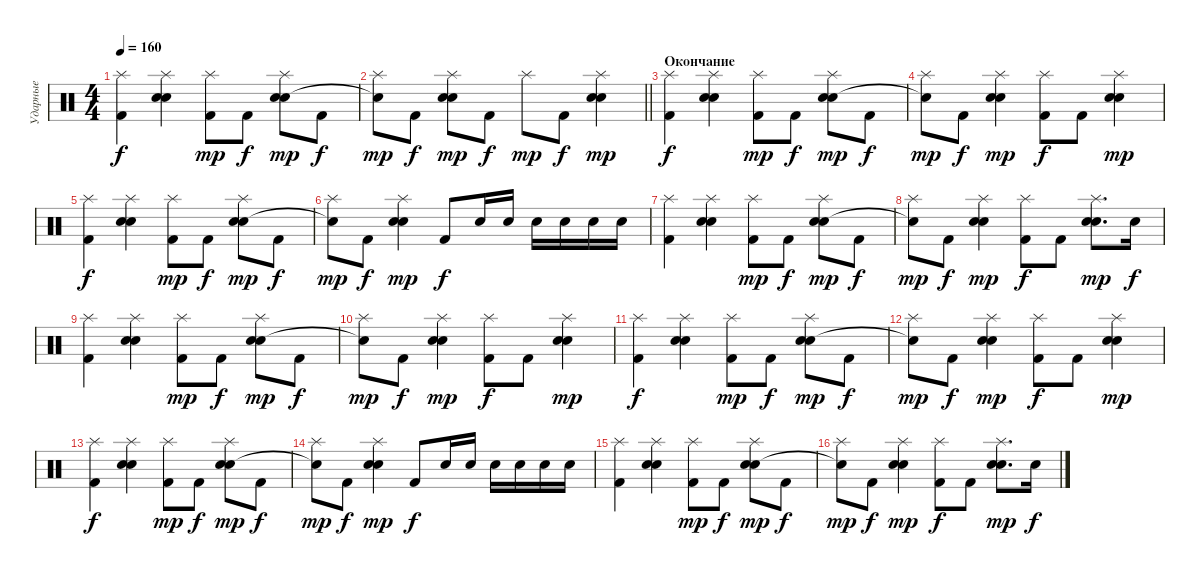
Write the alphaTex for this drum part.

\track ("Ударные" "Ударные") {instrument percussion}
\staff {score}
\articulation defaults
\ts (4 4)
\tempo 160
\clef neutral
\ks c
("Splash (hit)" "Kick (hit) 2").4{dy f} ("Splash (hit)" "Electric Snare (hit)" "Snare (hit) 2").4 ("Splash (hit)" "Kick (hit) 2").8{dy mp} "Kick (hit) 2".8{dy f} ("Splash (hit)" "Electric Snare (hit)" "Snare (hit) 2").8{dy mp} "Kick (hit) 2".8{dy f} |
\barLineRight lightlight
("Splash (hit)" "Snare (hit)"{t}).8{dy mp} "Kick (hit) 2".8{dy f} ("Splash (hit)" "Electric Snare (hit)" "Snare (hit) 2").8{dy mp} "Kick (hit) 2".8{dy f} "Splash (hit)".8{dy mp} "Kick (hit) 2".8{dy f} ("Splash (hit)" "Electric Snare (hit)" "Snare (hit) 2").4{dy mp} |
\section ("" "Окончание")
("Splash (hit)" "Kick (hit) 2").4{dy f} ("Splash (hit)" "Electric Snare (hit)" "Snare (hit) 2").4 ("Splash (hit)" "Kick (hit) 2").8{dy mp} "Kick (hit) 2".8{dy f} ("Splash (hit)" "Electric Snare (hit)" "Snare (hit) 2").8{dy mp} "Kick (hit) 2".8{dy f} |
("Splash (hit)" "Snare (hit)"{t}).8{dy mp} "Kick (hit) 2".8{dy f} ("Splash (hit)" "Electric Snare (hit)" "Snare (hit) 2").4{dy mp} ("Splash (hit)" "Kick (hit) 2").8{dy f} "Kick (hit) 2".8 ("Splash (hit)" "Electric Snare (hit)" "Snare (hit) 2").4{dy mp} |
("Splash (hit)" "Kick (hit) 2").4{dy f} ("Splash (hit)" "Electric Snare (hit)" "Snare (hit) 2").4 ("Splash (hit)" "Kick (hit) 2").8{dy mp} "Kick (hit) 2".8{dy f} ("Splash (hit)" "Electric Snare (hit)" "Snare (hit) 2").8{dy mp} "Kick (hit) 2".8{dy f} |
("Splash (hit)" "Snare (hit)"{t}).8{dy mp} "Kick (hit) 2".8{dy f} ("Splash (hit)" "Electric Snare (hit)" "Snare (hit) 2").4{dy mp} "Kick (hit) 2".8{dy f} "Electric Snare (hit)".16 "Electric Snare (hit)".16 "Electric Snare (hit)".16 "Electric Snare (hit)".16 "Electric Snare (hit)".16 "Electric Snare (hit)".16 |
("Splash (hit)" "Kick (hit) 2").4 ("Splash (hit)" "Electric Snare (hit)" "Snare (hit) 2").4 ("Splash (hit)" "Kick (hit) 2").8{dy mp} "Kick (hit) 2".8{dy f} ("Splash (hit)" "Electric Snare (hit)" "Snare (hit) 2").8{dy mp} "Kick (hit) 2".8{dy f} |
("Splash (hit)" "Snare (hit)"{t}).8{dy mp} "Kick (hit) 2".8{dy f} ("Splash (hit)" "Electric Snare (hit)" "Snare (hit) 2").4{dy mp} ("Splash (hit)" "Kick (hit) 2").8{dy f} "Kick (hit) 2".8 ("Splash (hit)" "Electric Snare (hit)" "Snare (hit) 2").8{d dy mp} "Electric Snare (hit)".16{dy f} |
("Splash (hit)" "Kick (hit) 2").4 ("Splash (hit)" "Electric Snare (hit)" "Snare (hit) 2").4 ("Splash (hit)" "Kick (hit) 2").8{dy mp} "Kick (hit) 2".8{dy f} ("Splash (hit)" "Electric Snare (hit)" "Snare (hit) 2").8{dy mp} "Kick (hit) 2".8{dy f} |
("Splash (hit)" "Snare (hit)"{t}).8{dy mp} "Kick (hit) 2".8{dy f} ("Splash (hit)" "Electric Snare (hit)" "Snare (hit) 2").4{dy mp} ("Splash (hit)" "Kick (hit) 2").8{dy f} "Kick (hit) 2".8 ("Splash (hit)" "Electric Snare (hit)" "Snare (hit) 2").4{dy mp} |
("Splash (hit)" "Kick (hit) 2").4{dy f} ("Splash (hit)" "Electric Snare (hit)" "Snare (hit) 2").4 ("Splash (hit)" "Kick (hit) 2").8{dy mp} "Kick (hit) 2".8{dy f} ("Splash (hit)" "Electric Snare (hit)" "Snare (hit) 2").8{dy mp} "Kick (hit) 2".8{dy f} |
("Splash (hit)" "Snare (hit)"{t}).8{dy mp} "Kick (hit) 2".8{dy f} ("Splash (hit)" "Electric Snare (hit)" "Snare (hit) 2").4{dy mp} ("Splash (hit)" "Kick (hit) 2").8{dy f} "Kick (hit) 2".8 ("Splash (hit)" "Electric Snare (hit)" "Snare (hit) 2").4{dy mp} |
("Splash (hit)" "Kick (hit) 2").4{dy f} ("Splash (hit)" "Electric Snare (hit)" "Snare (hit) 2").4 ("Splash (hit)" "Kick (hit) 2").8{dy mp} "Kick (hit) 2".8{dy f} ("Splash (hit)" "Electric Snare (hit)" "Snare (hit) 2").8{dy mp} "Kick (hit) 2".8{dy f} |
("Splash (hit)" "Snare (hit)"{t}).8{dy mp} "Kick (hit) 2".8{dy f} ("Splash (hit)" "Electric Snare (hit)" "Snare (hit) 2").4{dy mp} "Kick (hit) 2".8{dy f} "Electric Snare (hit)".16 "Electric Snare (hit)".16 "Electric Snare (hit)".16 "Electric Snare (hit)".16 "Electric Snare (hit)".16 "Electric Snare (hit)".16 |
("Splash (hit)" "Kick (hit) 2").4 ("Splash (hit)" "Electric Snare (hit)" "Snare (hit) 2").4 ("Splash (hit)" "Kick (hit) 2").8{dy mp} "Kick (hit) 2".8{dy f} ("Splash (hit)" "Electric Snare (hit)" "Snare (hit) 2").8{dy mp} "Kick (hit) 2".8{dy f} |
("Splash (hit)" "Snare (hit)"{t}).8{dy mp} "Kick (hit) 2".8{dy f} ("Splash (hit)" "Electric Snare (hit)" "Snare (hit) 2").4{dy mp} ("Splash (hit)" "Kick (hit) 2").8{dy f} "Kick (hit) 2".8 ("Splash (hit)" "Electric Snare (hit)" "Snare (hit) 2").8{d dy mp} "Electric Snare (hit)".16{dy f}
